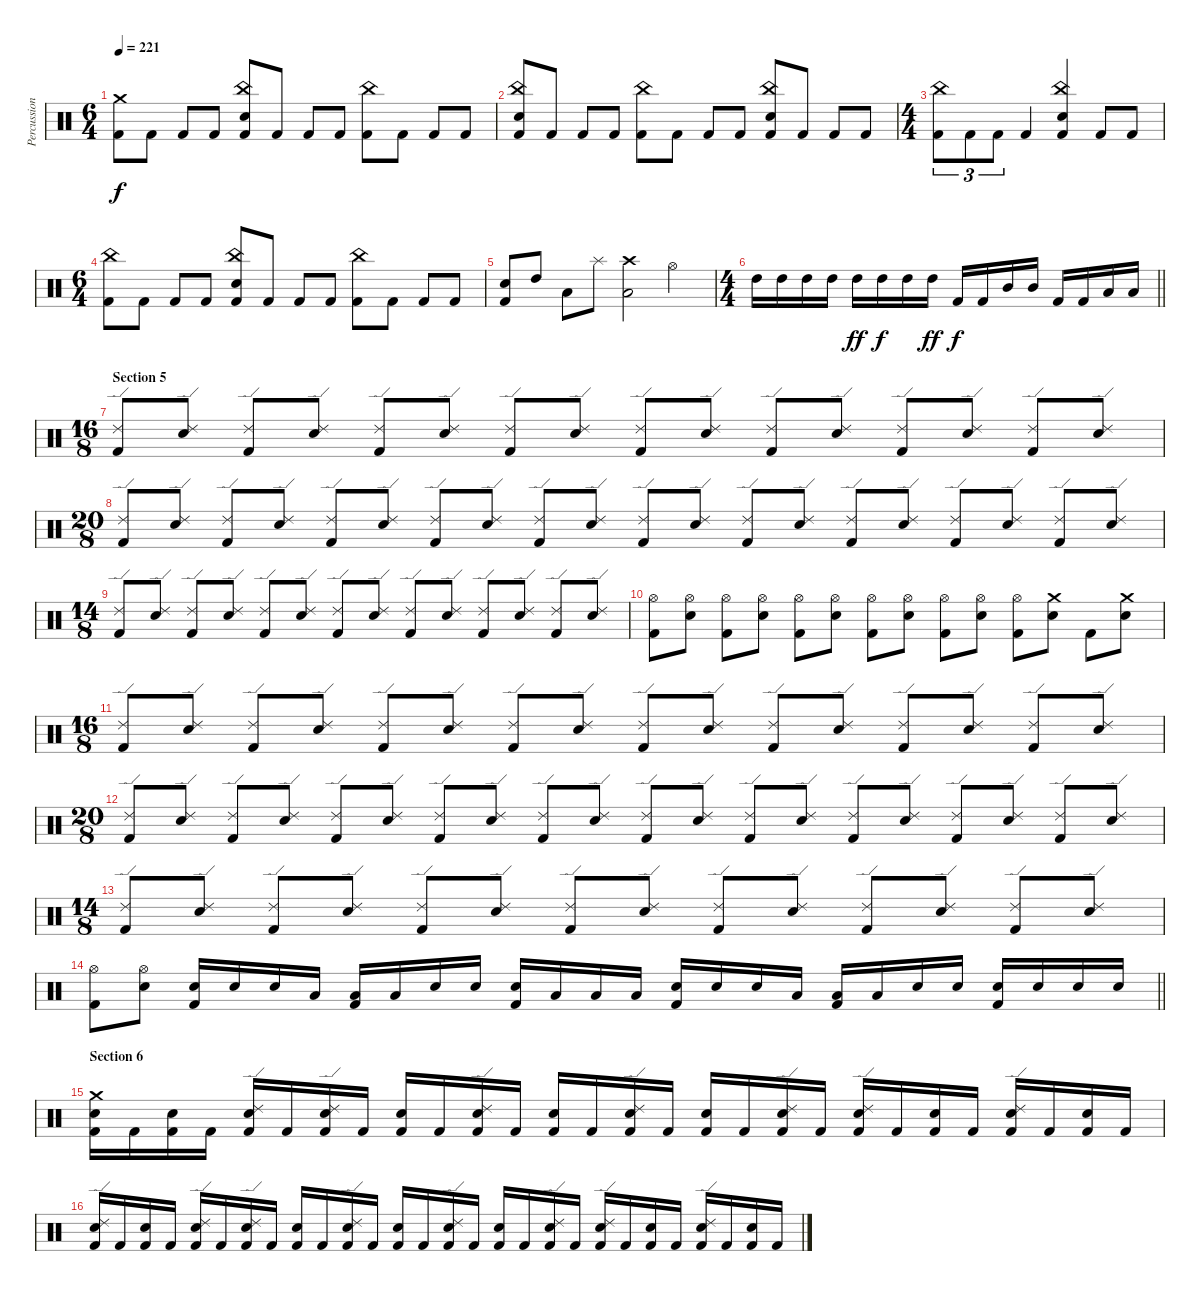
\track ("Percussion" "Percussion") {instrument percussion}
\staff {score}
\articulation defaults
\ts (6 4)
\tempo 221
\clef neutral
\ks c
("Crash medium (hit)" "Kick (hit) 2").8{dy f} "Kick (hit) 2".8 "Kick (hit) 2".8 "Kick (hit) 2".8 ("China (hit)" "Snare (hit) 2" "Kick (hit) 2").8 "Kick (hit) 2".8 "Kick (hit) 2".8 "Kick (hit) 2".8 ("China (hit)" "Kick (hit) 2").8 "Kick (hit) 2".8 "Kick (hit) 2".8 "Kick (hit) 2".8 |
("China (hit)" "Snare (hit) 2" "Kick (hit) 2").8 "Kick (hit) 2".8 "Kick (hit) 2".8 "Kick (hit) 2".8 ("China (hit)" "Kick (hit) 2").8 "Kick (hit) 2".8 "Kick (hit) 2".8 "Kick (hit) 2".8 ("China (hit)" "Snare (hit) 2" "Kick (hit) 2").8 "Kick (hit) 2".8 "Kick (hit) 2".8 "Kick (hit) 2".8 |
\ts (4 4)
("China (hit)" "Kick (hit) 2").8{tu (3 2)} "Kick (hit) 2".8{tu (3 2)} "Kick (hit) 2".8{tu (3 2)} "Kick (hit) 2".4 ("China (hit)" "Snare (hit) 2" "Kick (hit) 2").4 "Kick (hit) 2".8 "Kick (hit) 2".8 |
\ts (6 4)
("China (hit)" "Kick (hit) 2").8 "Kick (hit) 2".8 "Kick (hit) 2".8 "Kick (hit) 2".8 ("China (hit)" "Snare (hit) 2" "Kick (hit) 2").8 "Kick (hit) 2".8 "Kick (hit) 2".8 "Kick (hit) 2".8 ("China (hit)" "Kick (hit) 2").8 "Kick (hit) 2".8 "Kick (hit) 2".8 "Kick (hit) 2".8 |
("Snare (hit) 2" "Kick (hit) 2").8 "High Tom (hit)".8 "Low Tom (hit)".8 "Splash (hit)".8 ("Crash high (hit)" "Low Floor Tom (hit)").2 "Hi-Hat (open)".2 |
\ts (4 4)
\barLineRight lightlight "High Tom (hit)".16 "High Tom (hit)".16 "High Tom (hit)".16 "High Tom (hit)".16 "High Tom (hit)".16{dy ff} "High Tom (hit)".16{dy f} "High Tom (hit)".16 "High Tom (hit)".16{dy ff} "Kick (hit) 2".16{dy f} "Kick (hit) 2".16 "Mid Tom (hit)".16 "Mid Tom (hit)".16 "Kick (hit) 2".16 "Kick (hit) 2".16 "Low Tom (hit)".16 "Low Tom (hit)".16
|
\ts (16 8)
\section ("" "Section 5")
("Ride (edge) 2" "Kick (hit) 2").8 ("Ride (edge) 2" "Snare (hit) 2").8 ("Ride (edge) 2" "Kick (hit) 2").8 ("Ride (edge) 2" "Snare (hit) 2").8 ("Ride (edge) 2" "Kick (hit) 2").8 ("Ride (edge) 2" "Snare (hit) 2").8 ("Ride (edge) 2" "Kick (hit) 2").8 ("Ride (edge) 2" "Snare (hit) 2").8 ("Ride (edge) 2" "Kick (hit) 2").8 ("Ride (edge) 2" "Snare (hit) 2").8 ("Ride (edge) 2" "Kick (hit) 2").8 ("Ride (edge) 2" "Snare (hit) 2").8 ("Ride (edge) 2" "Kick (hit) 2").8 ("Ride (edge) 2" "Snare (hit) 2").8 ("Ride (edge) 2" "Kick (hit) 2").8 ("Ride (edge) 2" "Snare (hit) 2").8 |
\ts (20 8)
("Ride (edge) 2" "Kick (hit) 2").8 ("Ride (edge) 2" "Snare (hit) 2").8 ("Ride (edge) 2" "Kick (hit) 2").8 ("Ride (edge) 2" "Snare (hit) 2").8 ("Ride (edge) 2" "Kick (hit) 2").8 ("Ride (edge) 2" "Snare (hit) 2").8 ("Ride (edge) 2" "Kick (hit) 2").8 ("Ride (edge) 2" "Snare (hit) 2").8 ("Ride (edge) 2" "Kick (hit) 2").8 ("Ride (edge) 2" "Snare (hit) 2").8 ("Ride (edge) 2" "Kick (hit) 2").8 ("Ride (edge) 2" "Snare (hit) 2").8 ("Ride (edge) 2" "Kick (hit) 2").8 ("Ride (edge) 2" "Snare (hit) 2").8 ("Ride (edge) 2" "Kick (hit) 2").8 ("Ride (edge) 2" "Snare (hit) 2").8 ("Ride (edge) 2" "Kick (hit) 2").8 ("Ride (edge) 2" "Snare (hit) 2").8 ("Ride (edge) 2" "Kick (hit) 2").8 ("Ride (edge) 2" "Snare (hit) 2").8 |
\ts (14 8)
("Ride (edge) 2" "Kick (hit) 2").8 ("Ride (edge) 2" "Snare (hit) 2").8 ("Ride (edge) 2" "Kick (hit) 2").8 ("Ride (edge) 2" "Snare (hit) 2").8 ("Ride (edge) 2" "Kick (hit) 2").8 ("Ride (edge) 2" "Snare (hit) 2").8 ("Ride (edge) 2" "Kick (hit) 2").8 ("Ride (edge) 2" "Snare (hit) 2").8 ("Ride (edge) 2" "Kick (hit) 2").8 ("Ride (edge) 2" "Snare (hit) 2").8 ("Ride (edge) 2" "Kick (hit) 2").8 ("Ride (edge) 2" "Snare (hit) 2").8 ("Ride (edge) 2" "Kick (hit) 2").8 ("Ride (edge) 2" "Snare (hit) 2").8 |
("Hi-Hat (open)" "Kick (hit) 2").8 ("Hi-Hat (open)" "Snare (hit) 2").8 ("Hi-Hat (open)" "Kick (hit) 2").8 ("Hi-Hat (open)" "Snare (hit) 2").8 ("Hi-Hat (open)" "Kick (hit) 2").8 ("Hi-Hat (open)" "Snare (hit) 2").8 ("Hi-Hat (open)" "Kick (hit) 2").8 ("Hi-Hat (open)" "Snare (hit) 2").8 ("Hi-Hat (open)" "Kick (hit) 2").8 ("Hi-Hat (open)" "Snare (hit) 2").8 ("Hi-Hat (open)" "Kick (hit) 2").8 ("Crash medium (hit)" "Snare (hit) 2").8 "Kick (hit) 2".8 ("Crash medium (hit)" "Snare (hit) 2").8 |
\ts (16 8)
("Ride (edge) 2" "Kick (hit) 2").8 ("Ride (edge) 2" "Snare (hit) 2").8 ("Ride (edge) 2" "Kick (hit) 2").8 ("Ride (edge) 2" "Snare (hit) 2").8 ("Ride (edge) 2" "Kick (hit) 2").8 ("Ride (edge) 2" "Snare (hit) 2").8 ("Ride (edge) 2" "Kick (hit) 2").8 ("Ride (edge) 2" "Snare (hit) 2").8 ("Ride (edge) 2" "Kick (hit) 2").8 ("Ride (edge) 2" "Snare (hit) 2").8 ("Ride (edge) 2" "Kick (hit) 2").8 ("Ride (edge) 2" "Snare (hit) 2").8 ("Ride (edge) 2" "Kick (hit) 2").8 ("Ride (edge) 2" "Snare (hit) 2").8 ("Ride (edge) 2" "Kick (hit) 2").8 ("Ride (edge) 2" "Snare (hit) 2").8 |
\ts (20 8)
("Ride (edge) 2" "Kick (hit) 2").8 ("Ride (edge) 2" "Snare (hit) 2").8 ("Ride (edge) 2" "Kick (hit) 2").8 ("Ride (edge) 2" "Snare (hit) 2").8 ("Ride (edge) 2" "Kick (hit) 2").8 ("Ride (edge) 2" "Snare (hit) 2").8 ("Ride (edge) 2" "Kick (hit) 2").8 ("Ride (edge) 2" "Snare (hit) 2").8 ("Ride (edge) 2" "Kick (hit) 2").8 ("Ride (edge) 2" "Snare (hit) 2").8 ("Ride (edge) 2" "Kick (hit) 2").8 ("Ride (edge) 2" "Snare (hit) 2").8 ("Ride (edge) 2" "Kick (hit) 2").8 ("Ride (edge) 2" "Snare (hit) 2").8 ("Ride (edge) 2" "Kick (hit) 2").8 ("Ride (edge) 2" "Snare (hit) 2").8 ("Ride (edge) 2" "Kick (hit) 2").8 ("Ride (edge) 2" "Snare (hit) 2").8 ("Ride (edge) 2" "Kick (hit) 2").8 ("Ride (edge) 2" "Snare (hit) 2").8 |
\ts (14 8)
("Ride (edge) 2" "Kick (hit) 2").8 ("Ride (edge) 2" "Snare (hit) 2").8 ("Ride (edge) 2" "Kick (hit) 2").8 ("Ride (edge) 2" "Snare (hit) 2").8 ("Ride (edge) 2" "Kick (hit) 2").8 ("Ride (edge) 2" "Snare (hit) 2").8 ("Ride (edge) 2" "Kick (hit) 2").8 ("Ride (edge) 2" "Snare (hit) 2").8 ("Ride (edge) 2" "Kick (hit) 2").8 ("Ride (edge) 2" "Snare (hit) 2").8 ("Ride (edge) 2" "Kick (hit) 2").8 ("Ride (edge) 2" "Snare (hit) 2").8 ("Ride (edge) 2" "Kick (hit) 2").8 ("Ride (edge) 2" "Snare (hit) 2").8 |
\barLineRight lightlight
("Hi-Hat (open)" "Kick (hit) 2").8 ("Hi-Hat (open)" "Snare (hit) 2").8 ("Snare (hit) 2" "Kick (hit) 2").16 "Snare (hit) 2".16 "Snare (hit) 2".16 "Low Tom (hit)".16 ("Low Tom (hit)" "Kick (hit) 2").16 "Low Tom (hit)".16 "Snare (hit) 2".16 "Snare (hit) 2".16 ("Snare (hit) 2" "Kick (hit) 2").16 "Low Tom (hit)".16 "Low Tom (hit)".16 "Low Tom (hit)".16 ("Snare (hit) 2" "Kick (hit) 2").16 "Snare (hit) 2".16 "Snare (hit) 2".16 "Low Tom (hit)".16 ("Low Tom (hit)" "Kick (hit) 2").16 "Low Tom (hit)".16 "Snare (hit) 2".16 "Snare (hit) 2".16 ("Snare (hit) 2" "Kick (hit) 2").16 "Snare (hit) 2".16 "Snare (hit) 2".16 "Snare (hit) 2".16 |
\section ("" "Section 6")
("Crash medium (hit)" "Snare (hit) 2" "Kick (hit) 2").16 "Kick (hit) 2".16 ("Snare (hit) 2" "Kick (hit) 2").16 "Kick (hit) 2".16 ("Ride (edge) 2" "Snare (hit) 2" "Kick (hit) 2").16 "Kick (hit) 2".16 ("Ride (edge) 2" "Snare (hit) 2" "Kick (hit) 2").16 "Kick (hit) 2".16 ("Snare (hit) 2" "Kick (hit) 2").16 "Kick (hit) 2".16 ("Ride (edge) 2" "Snare (hit) 2" "Kick (hit) 2").16 "Kick (hit) 2".16 ("Snare (hit) 2" "Kick (hit) 2").16 "Kick (hit) 2".16 ("Ride (edge) 2" "Snare (hit) 2" "Kick (hit) 2").16 "Kick (hit) 2".16 ("Snare (hit) 2" "Kick (hit) 2").16 "Kick (hit) 2".16 ("Ride (edge) 2" "Snare (hit) 2" "Kick (hit) 2").16 "Kick (hit) 2".16 ("Ride (edge) 2" "Snare (hit) 2" "Kick (hit) 2").16 "Kick (hit) 2".16 ("Snare (hit) 2" "Kick (hit) 2").16 "Kick (hit) 2".16 ("Ride (edge) 2" "Snare (hit) 2" "Kick (hit) 2").16 "Kick (hit) 2".16 ("Snare (hit) 2" "Kick (hit) 2").16 "Kick (hit) 2".16 |
("Ride (edge) 2" "Snare (hit) 2" "Kick (hit) 2").16 "Kick (hit) 2".16 ("Snare (hit) 2" "Kick (hit) 2").16 "Kick (hit) 2".16 ("Ride (edge) 2" "Snare (hit) 2" "Kick (hit) 2").16 "Kick (hit) 2".16 ("Ride (edge) 2" "Snare (hit) 2" "Kick (hit) 2").16 "Kick (hit) 2".16 ("Snare (hit) 2" "Kick (hit) 2").16 "Kick (hit) 2".16 ("Ride (edge) 2" "Snare (hit) 2" "Kick (hit) 2").16 "Kick (hit) 2".16 ("Snare (hit) 2" "Kick (hit) 2").16 "Kick (hit) 2".16 ("Ride (edge) 2" "Snare (hit) 2" "Kick (hit) 2").16 "Kick (hit) 2".16 ("Snare (hit) 2" "Kick (hit) 2").16 "Kick (hit) 2".16 ("Ride (edge) 2" "Snare (hit) 2" "Kick (hit) 2").16 "Kick (hit) 2".16 ("Ride (edge) 2" "Snare (hit) 2" "Kick (hit) 2").16 "Kick (hit) 2".16 ("Snare (hit) 2" "Kick (hit) 2").16 "Kick (hit) 2".16 ("Ride (edge) 2" "Snare (hit) 2" "Kick (hit) 2").16 "Kick (hit) 2".16 ("Snare (hit) 2" "Kick (hit) 2").16 "Kick (hit) 2".16
